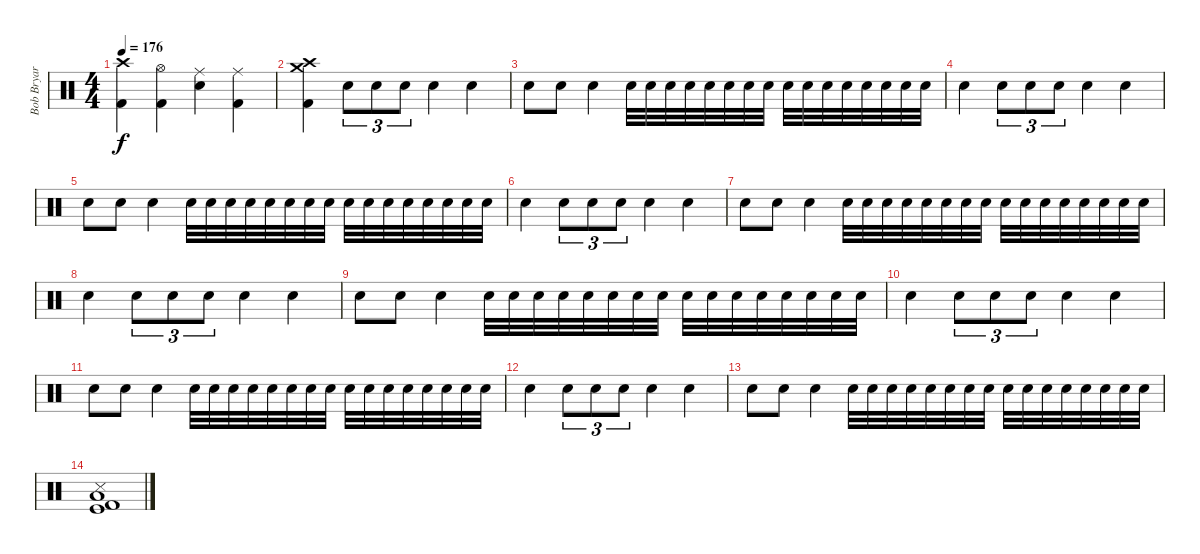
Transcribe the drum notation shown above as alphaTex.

\track ("Bob Bryar (percussion)" "Bob Bryar ") {instrument percussion}
\staff {score}
\articulation defaults
\ts (4 4)
\tempo 176
\clef neutral
\ks c
("Crash high (hit)" "Kick (hit) 2").4{dy f} ("Hi-Hat (open)" "Kick (hit) 2").4 ("Ride (middle)" "Electric Snare (hit)").4 ("Ride (middle)" "Kick (hit) 2").4 |
("Crash medium (hit)" "Crash high (hit)" "Kick (hit) 2").4 "Electric Snare (hit)".8{tu (3 2)} "Electric Snare (hit)".8{tu (3 2) volume 9} "Electric Snare (hit)".8{tu (3 2)} "Electric Snare (hit)".4 "Electric Snare (hit)".4 |
"Electric Snare (hit)".8 "Electric Snare (hit)".8 "Electric Snare (hit)".4 "Electric Snare (hit)".32 "Electric Snare (hit)".32 "Electric Snare (hit)".32 "Electric Snare (hit)".32 "Electric Snare (hit)".32 "Electric Snare (hit)".32 "Electric Snare (hit)".32 "Electric Snare (hit)".32 "Electric Snare (hit)".32 "Electric Snare (hit)".32 "Electric Snare (hit)".32 "Electric Snare (hit)".32 "Electric Snare (hit)".32 "Electric Snare (hit)".32 "Electric Snare (hit)".32 "Electric Snare (hit)".32 |
"Electric Snare (hit)".4{volume 10} "Electric Snare (hit)".8{tu (3 2)} "Electric Snare (hit)".8{tu (3 2)} "Electric Snare (hit)".8{tu (3 2)} "Electric Snare (hit)".4 "Electric Snare (hit)".4 |
"Electric Snare (hit)".8 "Electric Snare (hit)".8 "Electric Snare (hit)".4 "Electric Snare (hit)".32 "Electric Snare (hit)".32 "Electric Snare (hit)".32 "Electric Snare (hit)".32 "Electric Snare (hit)".32 "Electric Snare (hit)".32 "Electric Snare (hit)".32 "Electric Snare (hit)".32 "Electric Snare (hit)".32 "Electric Snare (hit)".32 "Electric Snare (hit)".32 "Electric Snare (hit)".32 "Electric Snare (hit)".32 "Electric Snare (hit)".32 "Electric Snare (hit)".32 "Electric Snare (hit)".32 |
"Electric Snare (hit)".4 "Electric Snare (hit)".8{tu (3 2)} "Electric Snare (hit)".8{tu (3 2)} "Electric Snare (hit)".8{tu (3 2)} "Electric Snare (hit)".4 "Electric Snare (hit)".4 |
"Electric Snare (hit)".8 "Electric Snare (hit)".8 "Electric Snare (hit)".4 "Electric Snare (hit)".32 "Electric Snare (hit)".32 "Electric Snare (hit)".32 "Electric Snare (hit)".32 "Electric Snare (hit)".32 "Electric Snare (hit)".32 "Electric Snare (hit)".32 "Electric Snare (hit)".32 "Electric Snare (hit)".32 "Electric Snare (hit)".32 "Electric Snare (hit)".32 "Electric Snare (hit)".32 "Electric Snare (hit)".32 "Electric Snare (hit)".32 "Electric Snare (hit)".32 "Electric Snare (hit)".32 |
"Electric Snare (hit)".4 "Electric Snare (hit)".8{tu (3 2)} "Electric Snare (hit)".8{tu (3 2)} "Electric Snare (hit)".8{tu (3 2)} "Electric Snare (hit)".4 "Electric Snare (hit)".4 |
"Electric Snare (hit)".8 "Electric Snare (hit)".8 "Electric Snare (hit)".4 "Electric Snare (hit)".32 "Electric Snare (hit)".32 "Electric Snare (hit)".32 "Electric Snare (hit)".32 "Electric Snare (hit)".32 "Electric Snare (hit)".32 "Electric Snare (hit)".32 "Electric Snare (hit)".32 "Electric Snare (hit)".32 "Electric Snare (hit)".32 "Electric Snare (hit)".32 "Electric Snare (hit)".32 "Electric Snare (hit)".32 "Electric Snare (hit)".32 "Electric Snare (hit)".32 "Electric Snare (hit)".32 |
"Electric Snare (hit)".4 "Electric Snare (hit)".8{tu (3 2)} "Electric Snare (hit)".8{tu (3 2)} "Electric Snare (hit)".8{tu (3 2)} "Electric Snare (hit)".4 "Electric Snare (hit)".4 |
"Electric Snare (hit)".8 "Electric Snare (hit)".8 "Electric Snare (hit)".4 "Electric Snare (hit)".32 "Electric Snare (hit)".32 "Electric Snare (hit)".32 "Electric Snare (hit)".32 "Electric Snare (hit)".32 "Electric Snare (hit)".32 "Electric Snare (hit)".32 "Electric Snare (hit)".32 "Electric Snare (hit)".32 "Electric Snare (hit)".32 "Electric Snare (hit)".32 "Electric Snare (hit)".32 "Electric Snare (hit)".32 "Electric Snare (hit)".32 "Electric Snare (hit)".32 "Electric Snare (hit)".32 |
"Electric Snare (hit)".4 "Electric Snare (hit)".8{tu (3 2)} "Electric Snare (hit)".8{tu (3 2)} "Electric Snare (hit)".8{tu (3 2)} "Electric Snare (hit)".4 "Electric Snare (hit)".4 |
"Electric Snare (hit)".8 "Electric Snare (hit)".8 "Electric Snare (hit)".4 "Electric Snare (hit)".32 "Electric Snare (hit)".32 "Electric Snare (hit)".32 "Electric Snare (hit)".32 "Electric Snare (hit)".32 "Electric Snare (hit)".32 "Electric Snare (hit)".32 "Electric Snare (hit)".32 "Electric Snare (hit)".32 "Electric Snare (hit)".32 "Electric Snare (hit)".32 "Electric Snare (hit)".32 "Electric Snare (hit)".32 "Electric Snare (hit)".32 "Electric Snare (hit)".32 "Electric Snare (hit)".32 |
("Kick (hit)" "Snare (side stick) 3" "Kick (hit) 2" "Low Floor Tom (hit)").1
